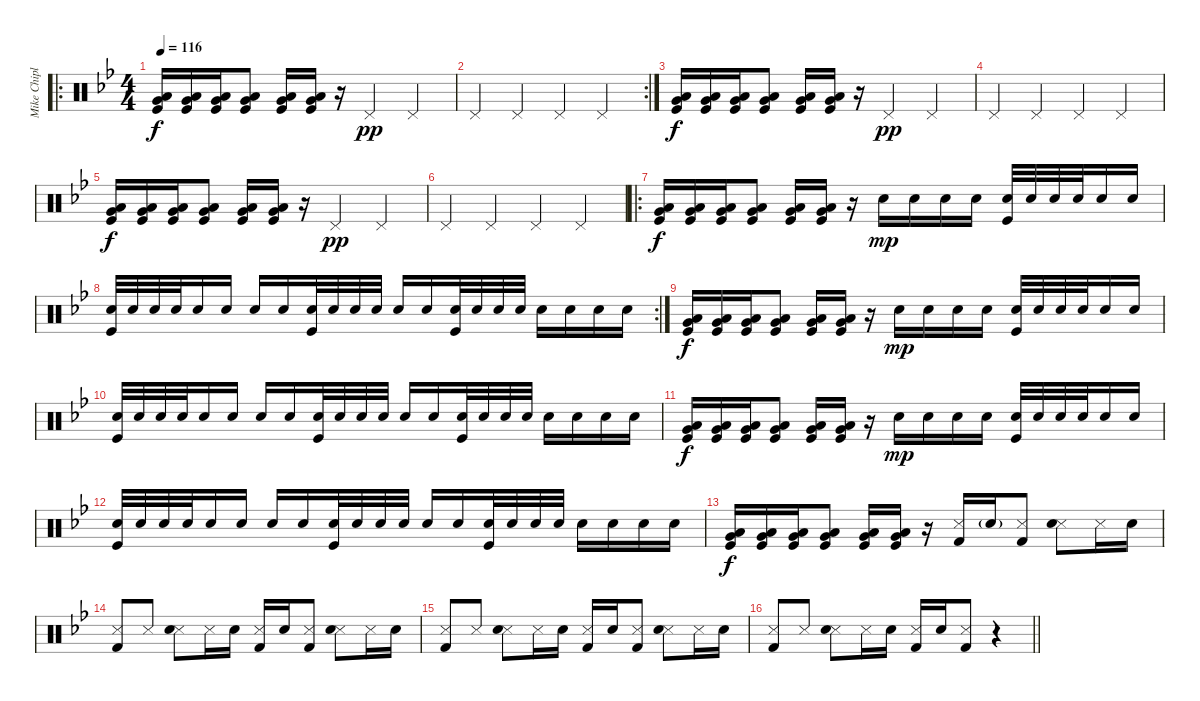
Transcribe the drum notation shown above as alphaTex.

\track ("Mike Chiplin" "Mike Chipl") {instrument percussion}
\staff {score}
\articulation defaults
\ro
\ts (4 4)
\tempo 116
\clef neutral
\ks bb
("Very Low Tom (hit)" "Low Tom (hit)" "Kick (hit)").16{dy f} ("Very Low Tom (hit)" "Low Tom (hit)" "Kick (hit)").16 ("Very Low Tom (hit)" "Low Tom (hit)" "Kick (hit)").16 ("Very Low Tom (hit)" "Low Tom (hit)" "Kick (hit)").8 ("Very Low Tom (hit)" "Low Tom (hit)" "Kick (hit)").16 ("Very Low Tom (hit)" "Low Tom (hit)" "Kick (hit)").16 r.16 "Pedal Hi-Hat (hit)".4{dy pp} "Pedal Hi-Hat (hit)".4 |
\rc 2 "Pedal Hi-Hat (hit)".4 "Pedal Hi-Hat (hit)".4 "Pedal Hi-Hat (hit)".4 "Pedal Hi-Hat (hit)".4
|
("Very Low Tom (hit)" "Low Tom (hit)" "Kick (hit)").16{dy f} ("Very Low Tom (hit)" "Low Tom (hit)" "Kick (hit)").16 ("Very Low Tom (hit)" "Low Tom (hit)" "Kick (hit)").16 ("Very Low Tom (hit)" "Low Tom (hit)" "Kick (hit)").8 ("Very Low Tom (hit)" "Low Tom (hit)" "Kick (hit)").16 ("Very Low Tom (hit)" "Low Tom (hit)" "Kick (hit)").16 r.16 "Pedal Hi-Hat (hit)".4{dy pp} "Pedal Hi-Hat (hit)".4 |
"Pedal Hi-Hat (hit)".4 "Pedal Hi-Hat (hit)".4 "Pedal Hi-Hat (hit)".4 "Pedal Hi-Hat (hit)".4 |
("Very Low Tom (hit)" "Low Tom (hit)" "Kick (hit)").16{dy f} ("Very Low Tom (hit)" "Low Tom (hit)" "Kick (hit)").16 ("Very Low Tom (hit)" "Low Tom (hit)" "Kick (hit)").16 ("Very Low Tom (hit)" "Low Tom (hit)" "Kick (hit)").8 ("Very Low Tom (hit)" "Low Tom (hit)" "Kick (hit)").16 ("Very Low Tom (hit)" "Low Tom (hit)" "Kick (hit)").16 r.16 "Pedal Hi-Hat (hit)".4{dy pp} "Pedal Hi-Hat (hit)".4 |
"Pedal Hi-Hat (hit)".4 "Pedal Hi-Hat (hit)".4 "Pedal Hi-Hat (hit)".4 "Pedal Hi-Hat (hit)".4 |
\ro
("Very Low Tom (hit)" "Low Tom (hit)" "Kick (hit)").16{dy f} ("Very Low Tom (hit)" "Low Tom (hit)" "Kick (hit)").16 ("Very Low Tom (hit)" "Low Tom (hit)" "Kick (hit)").16 ("Very Low Tom (hit)" "Low Tom (hit)" "Kick (hit)").8 ("Very Low Tom (hit)" "Low Tom (hit)" "Kick (hit)").16 ("Very Low Tom (hit)" "Low Tom (hit)" "Kick (hit)").16 r.16 "Snare (hit) 2".16{dy mp} "Snare (hit) 2".16 "Snare (hit) 2".16 "Snare (hit) 2".16 ("Kick (hit)" "Snare (hit) 2").32 "Snare (hit) 2".32 "Snare (hit) 2".32 "Snare (hit) 2".32 "Snare (hit) 2".16 "Snare (hit) 2".16 |
\rc 2
("Kick (hit)" "Snare (hit) 2").32 "Snare (hit) 2".32 "Snare (hit) 2".32 "Snare (hit) 2".32 "Snare (hit) 2".16 "Snare (hit) 2".16 "Snare (hit) 2".16 "Snare (hit) 2".16 ("Kick (hit)" "Snare (hit) 2").32 "Snare (hit) 2".32 "Snare (hit) 2".32 "Snare (hit) 2".32 "Snare (hit) 2".16 "Snare (hit) 2".16 ("Kick (hit)" "Snare (hit) 2").32 "Snare (hit) 2".32 "Snare (hit) 2".32 "Snare (hit) 2".32 "Snare (hit) 2".16 "Snare (hit) 2".16 "Snare (hit) 2".16 "Snare (hit) 2".16 |
("Very Low Tom (hit)" "Low Tom (hit)" "Kick (hit)").16{dy f} ("Very Low Tom (hit)" "Low Tom (hit)" "Kick (hit)").16 ("Very Low Tom (hit)" "Low Tom (hit)" "Kick (hit)").16 ("Very Low Tom (hit)" "Low Tom (hit)" "Kick (hit)").8 ("Very Low Tom (hit)" "Low Tom (hit)" "Kick (hit)").16 ("Very Low Tom (hit)" "Low Tom (hit)" "Kick (hit)").16 r.16 "Snare (hit) 2".16{dy mp} "Snare (hit) 2".16 "Snare (hit) 2".16 "Snare (hit) 2".16 ("Kick (hit)" "Snare (hit) 2").32 "Snare (hit) 2".32 "Snare (hit) 2".32 "Snare (hit) 2".32 "Snare (hit) 2".16 "Snare (hit) 2".16 |
("Kick (hit)" "Snare (hit) 2").32 "Snare (hit) 2".32 "Snare (hit) 2".32 "Snare (hit) 2".32 "Snare (hit) 2".16 "Snare (hit) 2".16 "Snare (hit) 2".16 "Snare (hit) 2".16 ("Kick (hit)" "Snare (hit) 2").32 "Snare (hit) 2".32 "Snare (hit) 2".32 "Snare (hit) 2".32 "Snare (hit) 2".16 "Snare (hit) 2".16 ("Kick (hit)" "Snare (hit) 2").32 "Snare (hit) 2".32 "Snare (hit) 2".32 "Snare (hit) 2".32 "Snare (hit) 2".16 "Snare (hit) 2".16 "Snare (hit) 2".16 "Snare (hit) 2".16 |
("Very Low Tom (hit)" "Low Tom (hit)" "Kick (hit)").16{dy f} ("Very Low Tom (hit)" "Low Tom (hit)" "Kick (hit)").16 ("Very Low Tom (hit)" "Low Tom (hit)" "Kick (hit)").16 ("Very Low Tom (hit)" "Low Tom (hit)" "Kick (hit)").8 ("Very Low Tom (hit)" "Low Tom (hit)" "Kick (hit)").16 ("Very Low Tom (hit)" "Low Tom (hit)" "Kick (hit)").16 r.16 "Snare (hit) 2".16{dy mp} "Snare (hit) 2".16 "Snare (hit) 2".16 "Snare (hit) 2".16 ("Kick (hit)" "Snare (hit) 2").32 "Snare (hit) 2".32 "Snare (hit) 2".32 "Snare (hit) 2".32 "Snare (hit) 2".16 "Snare (hit) 2".16 |
("Kick (hit)" "Snare (hit) 2").32 "Snare (hit) 2".32 "Snare (hit) 2".32 "Snare (hit) 2".32 "Snare (hit) 2".16 "Snare (hit) 2".16 "Snare (hit) 2".16 "Snare (hit) 2".16 ("Kick (hit)" "Snare (hit) 2").32 "Snare (hit) 2".32 "Snare (hit) 2".32 "Snare (hit) 2".32 "Snare (hit) 2".16 "Snare (hit) 2".16 ("Kick (hit)" "Snare (hit) 2").32 "Snare (hit) 2".32 "Snare (hit) 2".32 "Snare (hit) 2".32 "Snare (hit) 2".16 "Snare (hit) 2".16 "Snare (hit) 2".16 "Snare (hit) 2".16 |
("Very Low Tom (hit)" "Low Tom (hit)" "Kick (hit)").16{dy f} ("Very Low Tom (hit)" "Low Tom (hit)" "Kick (hit)").16 ("Very Low Tom (hit)" "Low Tom (hit)" "Kick (hit)").16 ("Very Low Tom (hit)" "Low Tom (hit)" "Kick (hit)").8 ("Very Low Tom (hit)" "Low Tom (hit)" "Kick (hit)").16 ("Very Low Tom (hit)" "Low Tom (hit)" "Kick (hit)").16 r.16{volume 6} ("Snare (side stick) 3" "Kick (hit) 2").16{volume 13} "Electric Snare (hit)"{g}.16 ("Snare (side stick) 3" "Kick (hit) 2").8 ("Snare (side stick) 3" "Electric Snare (hit)").8 "Snare (side stick) 3".16 "Snare (hit) 2".16 |
("Snare (side stick) 3" "Kick (hit) 2").8 "Snare (side stick) 3".8 ("Snare (side stick) 3" "Electric Snare (hit)").8 "Snare (side stick) 3".16 "Electric Snare (hit)".16 ("Snare (side stick) 3" "Kick (hit) 2").16 "Electric Snare (hit)".16 ("Snare (side stick) 3" "Kick (hit) 2").8 ("Snare (side stick) 3" "Electric Snare (hit)").8 "Snare (side stick) 3".16 "Electric Snare (hit)".16 |
("Snare (side stick) 3" "Kick (hit) 2").8 "Snare (side stick) 3".8 ("Snare (side stick) 3" "Electric Snare (hit)").8 "Snare (side stick) 3".16 "Electric Snare (hit)".16 ("Snare (side stick) 3" "Kick (hit) 2").16 "Electric Snare (hit)".16 ("Snare (side stick) 3" "Kick (hit) 2").8 ("Snare (side stick) 3" "Electric Snare (hit)").8 "Snare (side stick) 3".16 "Electric Snare (hit)".16 |
\barLineRight lightlight
("Snare (side stick) 3" "Kick (hit) 2").8 "Snare (side stick) 3".8 ("Snare (side stick) 3" "Electric Snare (hit)").8 "Snare (side stick) 3".16 "Electric Snare (hit)".16 ("Snare (side stick) 3" "Kick (hit) 2").16 "Electric Snare (hit)".16 ("Snare (side stick) 3" "Kick (hit) 2").8 r.4
